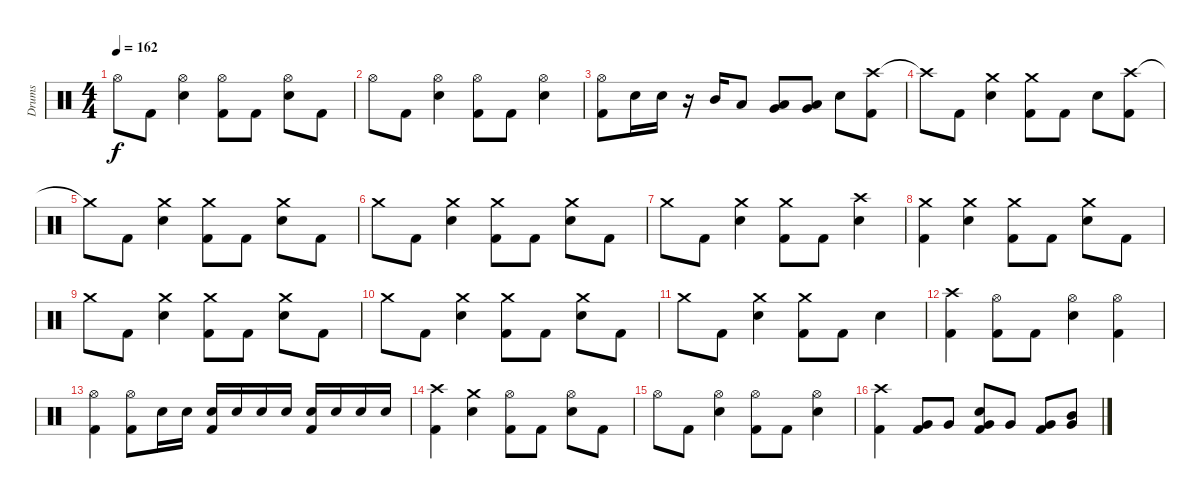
\track ("Drums" "Drums") {instrument percussion}
\staff {score}
\articulation defaults
\ts (4 4)
\tempo 162
\clef neutral
\ks c "Hi-Hat (open)".8{dy f} "Kick (hit) 2".8
("Hi-Hat (open)" "Snare (hit) 2").4 ("Hi-Hat (open)" "Kick (hit) 2").8 "Kick (hit) 2".8 ("Hi-Hat (open)" "Snare (hit) 2").8 "Kick (hit) 2".8 |
"Hi-Hat (open)".8 "Kick (hit) 2".8 ("Hi-Hat (open)" "Snare (hit) 2").4 ("Hi-Hat (open)" "Kick (hit) 2").8 "Kick (hit) 2".8 ("Hi-Hat (open)" "Snare (hit) 2").4 |
("Hi-Hat (open)" "Kick (hit) 2").8 "Snare (hit) 2".16 "Snare (hit) 2".16 r.16 "Mid Tom (hit)".16 "Low Tom (hit)".8 ("Low Tom (hit)" "Very Low Tom (hit)").8 ("Low Tom (hit)" "Very Low Tom (hit)").8 "Snare (hit) 2".8 ("Crash high (hit)" "Kick (hit) 2").8 |
"Crash high (hit)"{t}.8 "Kick (hit) 2".8 ("Crash medium (hit)" "Snare (hit) 2").4 ("Crash medium (hit)" "Kick (hit) 2").8 "Kick (hit) 2".8 "Snare (hit) 2".8 ("Crash high (hit)" "Kick (hit) 2").8 |
"Crash medium (hit)"{t}.8 "Kick (hit) 2".8 ("Crash medium (hit)" "Snare (hit) 2").4 ("Crash medium (hit)" "Kick (hit) 2").8 "Kick (hit) 2".8 ("Crash medium (hit)" "Snare (hit) 2").8 "Kick (hit) 2".8 |
"Crash medium (hit)".8 "Kick (hit) 2".8 ("Crash medium (hit)" "Snare (hit) 2").4 ("Crash medium (hit)" "Kick (hit) 2").8 "Kick (hit) 2".8 ("Crash medium (hit)" "Snare (hit) 2").8 "Kick (hit) 2".8 |
"Crash medium (hit)".8 "Kick (hit) 2".8 ("Crash medium (hit)" "Snare (hit) 2").4 ("Crash medium (hit)" "Kick (hit) 2").8 "Kick (hit) 2".8 ("Crash high (hit)" "Snare (hit) 2").4 |
("Crash medium (hit)" "Kick (hit) 2").4 ("Crash medium (hit)" "Snare (hit) 2").4 ("Crash medium (hit)" "Kick (hit) 2").8 "Kick (hit) 2".8 ("Crash medium (hit)" "Snare (hit) 2").8 "Kick (hit) 2".8 |
"Crash medium (hit)".8 "Kick (hit) 2".8 ("Crash medium (hit)" "Snare (hit) 2").4 ("Crash medium (hit)" "Kick (hit) 2").8 "Kick (hit) 2".8 ("Crash medium (hit)" "Snare (hit) 2").8 "Kick (hit) 2".8 |
"Crash medium (hit)".8 "Kick (hit) 2".8 ("Crash medium (hit)" "Snare (hit) 2").4 ("Crash medium (hit)" "Kick (hit) 2").8 "Kick (hit) 2".8 ("Crash medium (hit)" "Snare (hit) 2").8 "Kick (hit) 2".8 |
"Crash medium (hit)".8 "Kick (hit) 2".8 ("Crash medium (hit)" "Snare (hit) 2").4 ("Crash medium (hit)" "Kick (hit) 2").8 "Kick (hit) 2".8 "Snare (hit) 2".4 |
("Crash high (hit)" "Kick (hit) 2").4 ("Hi-Hat (open)" "Kick (hit) 2").8 "Kick (hit) 2".8 ("Hi-Hat (open)" "Snare (hit) 2").4 ("Hi-Hat (open)" "Kick (hit) 2").4 |
("Hi-Hat (open)" "Kick (hit) 2").4 ("Hi-Hat (open)" "Kick (hit) 2").8 "Snare (hit) 2".16 "Snare (hit) 2".16 ("Snare (hit) 2" "Kick (hit) 2").16 "Snare (hit) 2".16 "Snare (hit) 2".16 "Snare (hit) 2".16 ("Snare (hit) 2" "Kick (hit) 2").16 "Snare (hit) 2".16 "Snare (hit) 2".16 "Snare (hit) 2".16 |
("Crash high (hit)" "Kick (hit) 2").4 ("Crash medium (hit)" "Snare (hit) 2").4 ("Hi-Hat (open)" "Kick (hit) 2").8 "Kick (hit) 2".8 ("Hi-Hat (open)" "Snare (hit) 2").8 "Kick (hit) 2".8 |
"Hi-Hat (open)".8 "Kick (hit) 2".8 ("Hi-Hat (open)" "Snare (hit) 2").4 ("Hi-Hat (open)" "Kick (hit) 2").8 "Kick (hit) 2".8 ("Hi-Hat (open)" "Snare (hit) 2").4 |
("Crash high (hit)" "Kick (hit) 2").4 ("Very Low Tom (hit)" "Kick (hit) 2").8 "Very Low Tom (hit)".8 ("Very Low Tom (hit)" "Snare (hit) 2" "Kick (hit) 2").8 "Very Low Tom (hit)".8 ("Very Low Tom (hit)" "Kick (hit) 2").8 ("Mid Tom (hit)" "Very Low Tom (hit)").8
